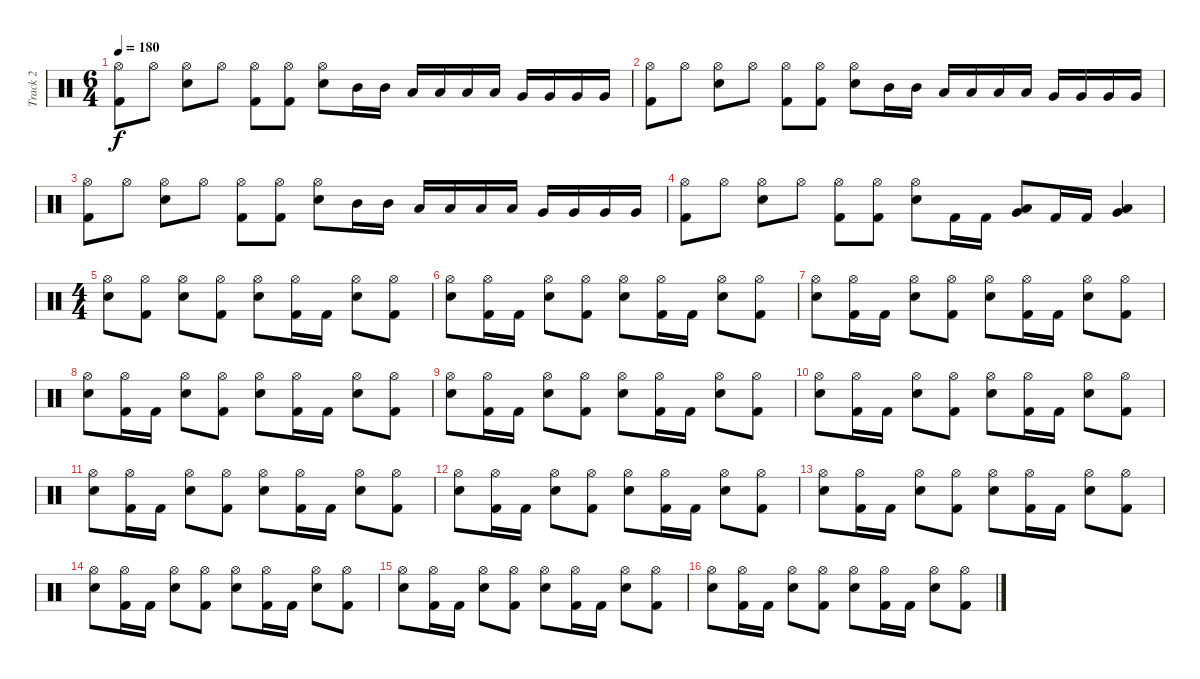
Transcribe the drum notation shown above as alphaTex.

\track ("Track 2" "Track 2") {instrument percussion}
\staff {score}
\articulation defaults
\ts (6 4)
\tempo 180
\clef neutral
\ks c
("Hi-Hat (open)" "Kick (hit) 2").8{dy f} "Hi-Hat (open)".8 ("Hi-Hat (open)" "Snare (hit) 2").8 "Hi-Hat (open)".8 ("Hi-Hat (open)" "Kick (hit) 2").8 ("Hi-Hat (open)" "Kick (hit) 2").8 ("Hi-Hat (open)" "Snare (hit) 2").8 "Mid Tom (hit)".16 "Mid Tom (hit)".16 "Low Tom (hit)".16 "Low Tom (hit)".16 "Low Tom (hit)".16 "Low Tom (hit)".16 "Very Low Tom (hit)".16 "Very Low Tom (hit)".16 "Very Low Tom (hit)".16 "Very Low Tom (hit)".16 |
("Hi-Hat (open)" "Kick (hit) 2").8 "Hi-Hat (open)".8 ("Hi-Hat (open)" "Snare (hit) 2").8 "Hi-Hat (open)".8 ("Hi-Hat (open)" "Kick (hit) 2").8 ("Hi-Hat (open)" "Kick (hit) 2").8 ("Hi-Hat (open)" "Snare (hit) 2").8 "Mid Tom (hit)".16 "Mid Tom (hit)".16 "Low Tom (hit)".16 "Low Tom (hit)".16 "Low Tom (hit)".16 "Low Tom (hit)".16 "Very Low Tom (hit)".16 "Very Low Tom (hit)".16 "Very Low Tom (hit)".16 "Very Low Tom (hit)".16 |
("Hi-Hat (open)" "Kick (hit) 2").8 "Hi-Hat (open)".8 ("Hi-Hat (open)" "Snare (hit) 2").8 "Hi-Hat (open)".8 ("Hi-Hat (open)" "Kick (hit) 2").8 ("Hi-Hat (open)" "Kick (hit) 2").8 ("Hi-Hat (open)" "Snare (hit) 2").8 "Mid Tom (hit)".16 "Mid Tom (hit)".16 "Low Tom (hit)".16 "Low Tom (hit)".16 "Low Tom (hit)".16 "Low Tom (hit)".16 "Very Low Tom (hit)".16 "Very Low Tom (hit)".16 "Very Low Tom (hit)".16 "Very Low Tom (hit)".16 |
("Hi-Hat (open)" "Kick (hit) 2").8 "Hi-Hat (open)".8 ("Hi-Hat (open)" "Snare (hit) 2").8 "Hi-Hat (open)".8 ("Hi-Hat (open)" "Kick (hit) 2").8 ("Hi-Hat (open)" "Kick (hit) 2").8 ("Hi-Hat (open)" "Snare (hit) 2").8 "Kick (hit) 2".16 "Kick (hit) 2".16 ("Low Tom (hit)" "Very Low Tom (hit)").8 "Kick (hit) 2".16 "Kick (hit) 2".16 ("Very Low Tom (hit)" "Low Floor Tom (hit)").4 |
\ts (4 4)
("Hi-Hat (open)" "Snare (hit) 2").8 ("Hi-Hat (open)" "Kick (hit) 2").8 ("Hi-Hat (open)" "Snare (hit) 2").8 ("Hi-Hat (open)" "Kick (hit) 2").8 ("Hi-Hat (open)" "Snare (hit) 2").8 ("Hi-Hat (open)" "Kick (hit) 2").16 "Kick (hit) 2".16 ("Hi-Hat (open)" "Snare (hit) 2").8 ("Hi-Hat (open)" "Kick (hit) 2").8 |
("Hi-Hat (open)" "Snare (hit) 2").8 ("Hi-Hat (open)" "Kick (hit) 2").16 "Kick (hit) 2".16 ("Hi-Hat (open)" "Snare (hit) 2").8 ("Hi-Hat (open)" "Kick (hit) 2").8 ("Hi-Hat (open)" "Snare (hit) 2").8 ("Hi-Hat (open)" "Kick (hit) 2").16 "Kick (hit) 2".16 ("Hi-Hat (open)" "Snare (hit) 2").8 ("Hi-Hat (open)" "Kick (hit) 2").8 |
("Hi-Hat (open)" "Snare (hit) 2").8 ("Hi-Hat (open)" "Kick (hit) 2").16 "Kick (hit) 2".16 ("Hi-Hat (open)" "Snare (hit) 2").8 ("Hi-Hat (open)" "Kick (hit) 2").8 ("Hi-Hat (open)" "Snare (hit) 2").8 ("Hi-Hat (open)" "Kick (hit) 2").16 "Kick (hit) 2".16 ("Hi-Hat (open)" "Snare (hit) 2").8 ("Hi-Hat (open)" "Kick (hit) 2").8 |
("Hi-Hat (open)" "Snare (hit) 2").8 ("Hi-Hat (open)" "Kick (hit) 2").16 "Kick (hit) 2".16 ("Hi-Hat (open)" "Snare (hit) 2").8 ("Hi-Hat (open)" "Kick (hit) 2").8 ("Hi-Hat (open)" "Snare (hit) 2").8 ("Hi-Hat (open)" "Kick (hit) 2").16 "Kick (hit) 2".16 ("Hi-Hat (open)" "Snare (hit) 2").8 ("Hi-Hat (open)" "Kick (hit) 2").8 |
("Hi-Hat (open)" "Snare (hit) 2").8 ("Hi-Hat (open)" "Kick (hit) 2").16 "Kick (hit) 2".16 ("Hi-Hat (open)" "Snare (hit) 2").8 ("Hi-Hat (open)" "Kick (hit) 2").8 ("Hi-Hat (open)" "Snare (hit) 2").8 ("Hi-Hat (open)" "Kick (hit) 2").16 "Kick (hit) 2".16 ("Hi-Hat (open)" "Snare (hit) 2").8 ("Hi-Hat (open)" "Kick (hit) 2").8 |
("Hi-Hat (open)" "Snare (hit) 2").8 ("Hi-Hat (open)" "Kick (hit) 2").16 "Kick (hit) 2".16 ("Hi-Hat (open)" "Snare (hit) 2").8 ("Hi-Hat (open)" "Kick (hit) 2").8 ("Hi-Hat (open)" "Snare (hit) 2").8 ("Hi-Hat (open)" "Kick (hit) 2").16 "Kick (hit) 2".16 ("Hi-Hat (open)" "Snare (hit) 2").8 ("Hi-Hat (open)" "Kick (hit) 2").8 |
("Hi-Hat (open)" "Snare (hit) 2").8 ("Hi-Hat (open)" "Kick (hit) 2").16 "Kick (hit) 2".16 ("Hi-Hat (open)" "Snare (hit) 2").8 ("Hi-Hat (open)" "Kick (hit) 2").8 ("Hi-Hat (open)" "Snare (hit) 2").8 ("Hi-Hat (open)" "Kick (hit) 2").16 "Kick (hit) 2".16 ("Hi-Hat (open)" "Snare (hit) 2").8 ("Hi-Hat (open)" "Kick (hit) 2").8 |
("Hi-Hat (open)" "Snare (hit) 2").8 ("Hi-Hat (open)" "Kick (hit) 2").16 "Kick (hit) 2".16 ("Hi-Hat (open)" "Snare (hit) 2").8 ("Hi-Hat (open)" "Kick (hit) 2").8 ("Hi-Hat (open)" "Snare (hit) 2").8 ("Hi-Hat (open)" "Kick (hit) 2").16 "Kick (hit) 2".16 ("Hi-Hat (open)" "Snare (hit) 2").8 ("Hi-Hat (open)" "Kick (hit) 2").8 |
("Hi-Hat (open)" "Snare (hit) 2").8 ("Hi-Hat (open)" "Kick (hit) 2").16 "Kick (hit) 2".16 ("Hi-Hat (open)" "Snare (hit) 2").8 ("Hi-Hat (open)" "Kick (hit) 2").8 ("Hi-Hat (open)" "Snare (hit) 2").8 ("Hi-Hat (open)" "Kick (hit) 2").16 "Kick (hit) 2".16 ("Hi-Hat (open)" "Snare (hit) 2").8 ("Hi-Hat (open)" "Kick (hit) 2").8 |
("Hi-Hat (open)" "Snare (hit) 2").8 ("Hi-Hat (open)" "Kick (hit) 2").16 "Kick (hit) 2".16 ("Hi-Hat (open)" "Snare (hit) 2").8 ("Hi-Hat (open)" "Kick (hit) 2").8 ("Hi-Hat (open)" "Snare (hit) 2").8 ("Hi-Hat (open)" "Kick (hit) 2").16 "Kick (hit) 2".16 ("Hi-Hat (open)" "Snare (hit) 2").8 ("Hi-Hat (open)" "Kick (hit) 2").8 |
("Hi-Hat (open)" "Snare (hit) 2").8 ("Hi-Hat (open)" "Kick (hit) 2").16 "Kick (hit) 2".16 ("Hi-Hat (open)" "Snare (hit) 2").8 ("Hi-Hat (open)" "Kick (hit) 2").8 ("Hi-Hat (open)" "Snare (hit) 2").8 ("Hi-Hat (open)" "Kick (hit) 2").16 "Kick (hit) 2".16 ("Hi-Hat (open)" "Snare (hit) 2").8 ("Hi-Hat (open)" "Kick (hit) 2").8 |
("Hi-Hat (open)" "Snare (hit) 2").8 ("Hi-Hat (open)" "Kick (hit) 2").16 "Kick (hit) 2".16 ("Hi-Hat (open)" "Snare (hit) 2").8 ("Hi-Hat (open)" "Kick (hit) 2").8 ("Hi-Hat (open)" "Snare (hit) 2").8 ("Hi-Hat (open)" "Kick (hit) 2").16 "Kick (hit) 2".16 ("Hi-Hat (open)" "Snare (hit) 2").8 ("Hi-Hat (open)" "Kick (hit) 2").8
